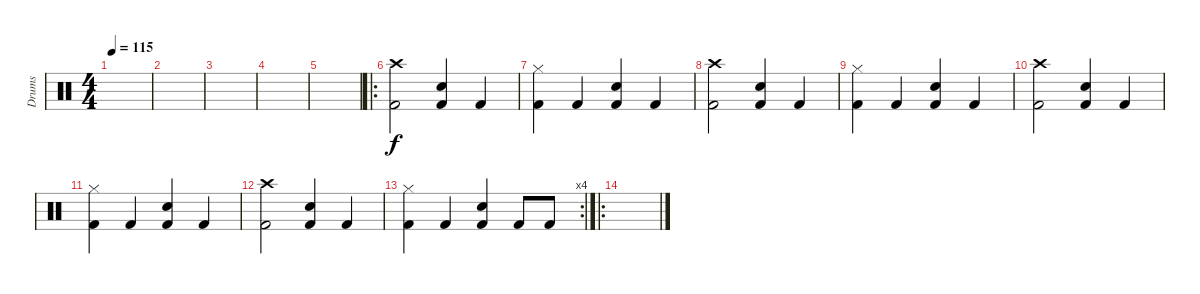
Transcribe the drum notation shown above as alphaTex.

\track ("Drums" "Drums") {instrument percussion}
\staff {score}
\articulation defaults
\ts (4 4)
\tempo 115
\clef neutral
\ks c
|
|
|
|
|
\ro
("Crash high (hit)" "Kick (hit) 2").2 ("Snare (hit) 2" "Kick (hit) 2").4 "Kick (hit) 2".4 |
("Hi-Hat (closed)" "Kick (hit) 2").4 "Kick (hit) 2".4 ("Snare (hit) 2" "Kick (hit) 2").4 "Kick (hit) 2".4 |
("Crash high (hit)" "Kick (hit) 2").2 ("Snare (hit) 2" "Kick (hit) 2").4 "Kick (hit) 2".4 |
("Hi-Hat (closed)" "Kick (hit) 2").4 "Kick (hit) 2".4 ("Snare (hit) 2" "Kick (hit) 2").4 "Kick (hit) 2".4 |
("Crash high (hit)" "Kick (hit) 2").2 ("Snare (hit) 2" "Kick (hit) 2").4 "Kick (hit) 2".4 |
("Hi-Hat (closed)" "Kick (hit) 2").4 "Kick (hit) 2".4 ("Snare (hit) 2" "Kick (hit) 2").4 "Kick (hit) 2".4 |
("Crash high (hit)" "Kick (hit) 2").2 ("Snare (hit) 2" "Kick (hit) 2").4 "Kick (hit) 2".4 |
\rc 4
("Hi-Hat (closed)" "Kick (hit) 2").4 "Kick (hit) 2".4 ("Snare (hit) 2" "Kick (hit) 2").4 "Kick (hit) 2".8 "Kick (hit) 2".8 |
\ro
